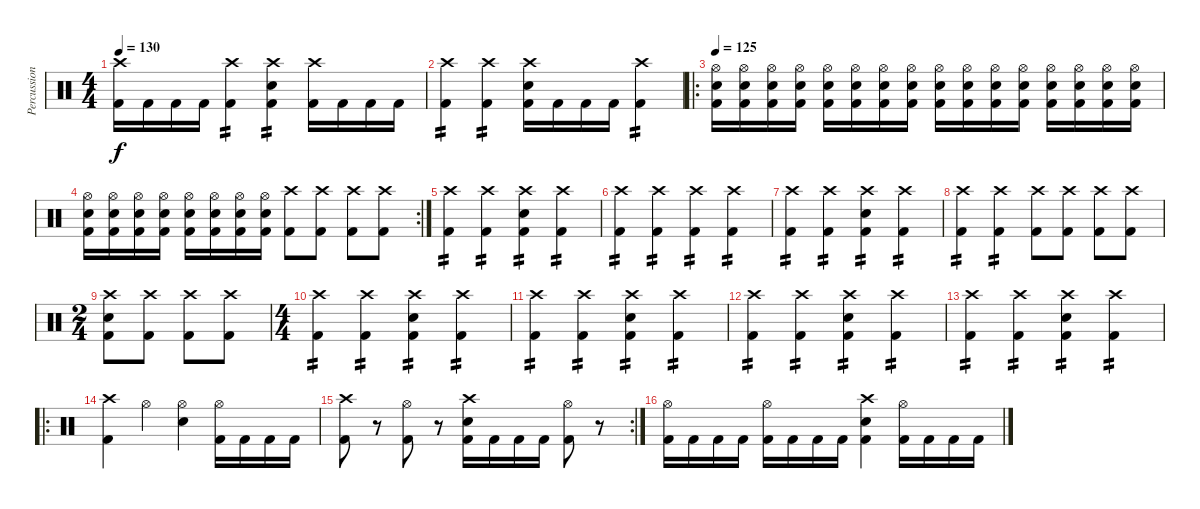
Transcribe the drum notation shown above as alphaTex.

\track ("Percussion" "Percussion") {instrument percussion}
\staff {score}
\articulation defaults
\ts (4 4)
\tempo 130
\clef neutral
\ks c
("Crash high (hit)" "Kick (hit) 2").16{dy f} "Kick (hit) 2".16 "Kick (hit) 2".16 "Kick (hit) 2".16 ("Crash high (hit)" "Kick (hit) 2").4{tp 2} ("Crash high (hit)" "Electric Snare (hit)" "Kick (hit) 2").4{tp 2} ("Crash high (hit)" "Kick (hit) 2").16 "Kick (hit) 2".16 "Kick (hit) 2".16 "Kick (hit) 2".16 |
("Crash high (hit)" "Kick (hit) 2").4{tp 2} ("Crash high (hit)" "Kick (hit) 2").4{tp 2} ("Crash high (hit)" "Electric Snare (hit)" "Kick (hit) 2").16 "Kick (hit) 2".16 "Kick (hit) 2".16 "Kick (hit) 2".16 ("Crash high (hit)" "Kick (hit) 2").4{tp 2} |
\ro
\tempo 125
("Hi-Hat (open)" "Electric Snare (hit)" "Kick (hit) 2").16 ("Hi-Hat (open)" "Electric Snare (hit)" "Kick (hit) 2").16 ("Hi-Hat (open)" "Electric Snare (hit)" "Kick (hit) 2").16 ("Hi-Hat (open)" "Electric Snare (hit)" "Kick (hit) 2").16 ("Hi-Hat (open)" "Electric Snare (hit)" "Kick (hit) 2").16 ("Hi-Hat (open)" "Electric Snare (hit)" "Kick (hit) 2").16 ("Hi-Hat (open)" "Electric Snare (hit)" "Kick (hit) 2").16 ("Hi-Hat (open)" "Electric Snare (hit)" "Kick (hit) 2").16 ("Hi-Hat (open)" "Electric Snare (hit)" "Kick (hit) 2").16 ("Hi-Hat (open)" "Electric Snare (hit)" "Kick (hit) 2").16 ("Hi-Hat (open)" "Electric Snare (hit)" "Kick (hit) 2").16 ("Hi-Hat (open)" "Electric Snare (hit)" "Kick (hit) 2").16 ("Hi-Hat (open)" "Electric Snare (hit)" "Kick (hit) 2").16 ("Hi-Hat (open)" "Electric Snare (hit)" "Kick (hit) 2").16 ("Hi-Hat (open)" "Electric Snare (hit)" "Kick (hit) 2").16 ("Hi-Hat (open)" "Electric Snare (hit)" "Kick (hit) 2").16 |
\rc 2
("Hi-Hat (open)" "Electric Snare (hit)" "Kick (hit) 2").16 ("Hi-Hat (open)" "Electric Snare (hit)" "Kick (hit) 2").16 ("Hi-Hat (open)" "Electric Snare (hit)" "Kick (hit) 2").16 ("Hi-Hat (open)" "Electric Snare (hit)" "Kick (hit) 2").16 ("Hi-Hat (open)" "Electric Snare (hit)" "Kick (hit) 2").16 ("Hi-Hat (open)" "Electric Snare (hit)" "Kick (hit) 2").16 ("Hi-Hat (open)" "Electric Snare (hit)" "Kick (hit) 2").16 ("Hi-Hat (open)" "Electric Snare (hit)" "Kick (hit) 2").16 ("Crash high (hit)" "Kick (hit) 2").8 ("Crash high (hit)" "Kick (hit) 2").8 ("Crash high (hit)" "Kick (hit) 2").8 ("Crash high (hit)" "Kick (hit) 2").8 |
("Crash high (hit)" "Kick (hit) 2").4{tp 2} ("Crash high (hit)" "Kick (hit) 2").4{tp 2} ("Crash high (hit)" "Electric Snare (hit)" "Kick (hit) 2").4{tp 2} ("Crash high (hit)" "Kick (hit) 2").4{tp 2} |
("Crash high (hit)" "Kick (hit) 2").4{tp 2} ("Crash high (hit)" "Kick (hit) 2").4{tp 2} ("Crash high (hit)" "Kick (hit) 2").4{tp 2} ("Crash high (hit)" "Kick (hit) 2").4{tp 2} |
("Crash high (hit)" "Kick (hit) 2").4{tp 2} ("Crash high (hit)" "Kick (hit) 2").4{tp 2} ("Crash high (hit)" "Electric Snare (hit)" "Kick (hit) 2").4{tp 2} ("Crash high (hit)" "Kick (hit) 2").4{tp 2} |
("Crash high (hit)" "Kick (hit) 2").4{tp 2} ("Crash high (hit)" "Kick (hit) 2").4{tp 2} ("Crash high (hit)" "Kick (hit) 2").8 ("Crash high (hit)" "Kick (hit) 2").8 ("Crash high (hit)" "Kick (hit) 2").8 ("Crash high (hit)" "Kick (hit) 2").8 |
\ts (2 4)
("Crash high (hit)" "Electric Snare (hit)" "Kick (hit) 2").8 ("Crash high (hit)" "Kick (hit) 2").8 ("Crash high (hit)" "Kick (hit) 2").8 ("Crash high (hit)" "Kick (hit) 2").8 |
\ts (4 4)
("Crash high (hit)" "Kick (hit) 2").4{tp 2} ("Crash high (hit)" "Kick (hit) 2").4{tp 2} ("Crash high (hit)" "Electric Snare (hit)" "Kick (hit) 2").4{tp 2} ("Crash high (hit)" "Kick (hit) 2").4{tp 2} |
("Crash high (hit)" "Kick (hit) 2").4{tp 2} ("Crash high (hit)" "Kick (hit) 2").4{tp 2} ("Crash high (hit)" "Electric Snare (hit)" "Kick (hit) 2").4{tp 2} ("Crash high (hit)" "Kick (hit) 2").4{tp 2} |
("Crash high (hit)" "Kick (hit) 2").4{tp 2} ("Crash high (hit)" "Kick (hit) 2").4{tp 2} ("Crash high (hit)" "Electric Snare (hit)" "Kick (hit) 2").4{tp 2} ("Crash high (hit)" "Kick (hit) 2").4{tp 2} |
("Crash high (hit)" "Kick (hit) 2").4{tp 2} ("Crash high (hit)" "Kick (hit) 2").4{tp 2} ("Crash high (hit)" "Electric Snare (hit)" "Kick (hit) 2").4{tp 2} ("Crash high (hit)" "Kick (hit) 2").4{tp 2} |
\ro
("Crash high (hit)" "Kick (hit) 2").4 "Hi-Hat (open)".4 ("Hi-Hat (open)" "Electric Snare (hit)").4 ("Hi-Hat (open)" "Kick (hit) 2").16 "Kick (hit) 2".16 "Kick (hit) 2".16 "Kick (hit) 2".16 |
\rc 2
("Crash high (hit)" "Kick (hit) 2").8 r.8 ("Hi-Hat (open)" "Kick (hit) 2").8 r.8 ("Crash high (hit)" "Electric Snare (hit)" "Kick (hit) 2").16 "Kick (hit) 2".16 "Kick (hit) 2".16 "Kick (hit) 2".16 ("Hi-Hat (open)" "Kick (hit) 2").8 r.8 |
("Hi-Hat (open)" "Kick (hit) 2").16 "Kick (hit) 2".16 "Kick (hit) 2".16 "Kick (hit) 2".16 ("Hi-Hat (open)" "Kick (hit) 2").16 "Kick (hit) 2".16 "Kick (hit) 2".16 "Kick (hit) 2".16 ("Crash high (hit)" "Electric Snare (hit)" "Kick (hit) 2").4 ("Hi-Hat (open)" "Kick (hit) 2").16 "Kick (hit) 2".16 "Kick (hit) 2".16 "Kick (hit) 2".16
